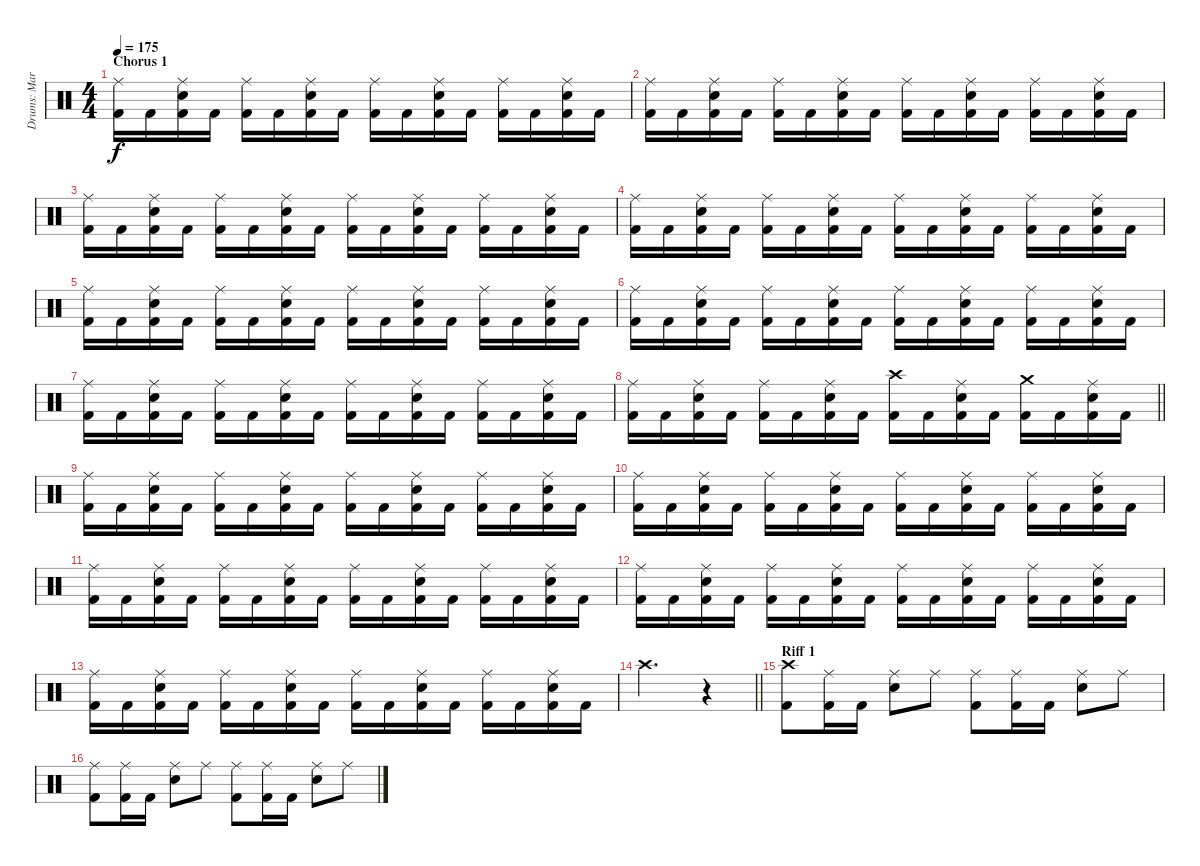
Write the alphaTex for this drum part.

\track ("Drums: Martin Herzinger" "Drums: Mar") {instrument percussion}
\staff {score}
\articulation defaults
\ts (4 4)
\section ("" "Chorus 1")
\tempo 175
\clef neutral
\ks aminor
("Ride (middle)" "Kick (hit) 2").16{dy f} "Kick (hit) 2".16 ("Ride (middle)" "Snare (hit) 2" "Kick (hit) 2").16 "Kick (hit) 2".16 ("Ride (middle)" "Kick (hit) 2").16 "Kick (hit) 2".16 ("Ride (middle)" "Snare (hit) 2" "Kick (hit) 2").16 "Kick (hit) 2".16 ("Ride (middle)" "Kick (hit) 2").16 "Kick (hit) 2".16 ("Ride (middle)" "Snare (hit) 2" "Kick (hit) 2").16 "Kick (hit) 2".16 ("Ride (middle)" "Kick (hit) 2").16 "Kick (hit) 2".16 ("Ride (middle)" "Snare (hit) 2" "Kick (hit) 2").16 "Kick (hit) 2".16 |
("Ride (middle)" "Kick (hit) 2").16 "Kick (hit) 2".16 ("Ride (middle)" "Snare (hit) 2" "Kick (hit) 2").16 "Kick (hit) 2".16 ("Ride (middle)" "Kick (hit) 2").16 "Kick (hit) 2".16 ("Ride (middle)" "Snare (hit) 2" "Kick (hit) 2").16 "Kick (hit) 2".16 ("Ride (middle)" "Kick (hit) 2").16 "Kick (hit) 2".16 ("Ride (middle)" "Snare (hit) 2" "Kick (hit) 2").16 "Kick (hit) 2".16 ("Ride (middle)" "Kick (hit) 2").16 "Kick (hit) 2".16 ("Ride (middle)" "Snare (hit) 2" "Kick (hit) 2").16 "Kick (hit) 2".16 |
("Ride (middle)" "Kick (hit) 2").16 "Kick (hit) 2".16 ("Ride (middle)" "Snare (hit) 2" "Kick (hit) 2").16 "Kick (hit) 2".16 ("Ride (middle)" "Kick (hit) 2").16 "Kick (hit) 2".16 ("Ride (middle)" "Snare (hit) 2" "Kick (hit) 2").16 "Kick (hit) 2".16 ("Ride (middle)" "Kick (hit) 2").16 "Kick (hit) 2".16 ("Ride (middle)" "Snare (hit) 2" "Kick (hit) 2").16 "Kick (hit) 2".16 ("Ride (middle)" "Kick (hit) 2").16 "Kick (hit) 2".16 ("Ride (middle)" "Snare (hit) 2" "Kick (hit) 2").16 "Kick (hit) 2".16 |
("Ride (middle)" "Kick (hit) 2").16 "Kick (hit) 2".16 ("Ride (middle)" "Snare (hit) 2" "Kick (hit) 2").16 "Kick (hit) 2".16 ("Ride (middle)" "Kick (hit) 2").16 "Kick (hit) 2".16 ("Ride (middle)" "Snare (hit) 2" "Kick (hit) 2").16 "Kick (hit) 2".16 ("Ride (middle)" "Kick (hit) 2").16 "Kick (hit) 2".16 ("Ride (middle)" "Snare (hit) 2" "Kick (hit) 2").16 "Kick (hit) 2".16 ("Ride (middle)" "Kick (hit) 2").16 "Kick (hit) 2".16 ("Ride (middle)" "Snare (hit) 2" "Kick (hit) 2").16 "Kick (hit) 2".16 |
("Ride (middle)" "Kick (hit) 2").16 "Kick (hit) 2".16 ("Ride (middle)" "Snare (hit) 2" "Kick (hit) 2").16 "Kick (hit) 2".16 ("Ride (middle)" "Kick (hit) 2").16 "Kick (hit) 2".16 ("Ride (middle)" "Snare (hit) 2" "Kick (hit) 2").16 "Kick (hit) 2".16 ("Ride (middle)" "Kick (hit) 2").16 "Kick (hit) 2".16 ("Ride (middle)" "Snare (hit) 2" "Kick (hit) 2").16 "Kick (hit) 2".16 ("Ride (middle)" "Kick (hit) 2").16 "Kick (hit) 2".16 ("Ride (middle)" "Snare (hit) 2" "Kick (hit) 2").16 "Kick (hit) 2".16 |
("Ride (middle)" "Kick (hit) 2").16 "Kick (hit) 2".16 ("Ride (middle)" "Snare (hit) 2" "Kick (hit) 2").16 "Kick (hit) 2".16 ("Ride (middle)" "Kick (hit) 2").16 "Kick (hit) 2".16 ("Ride (middle)" "Snare (hit) 2" "Kick (hit) 2").16 "Kick (hit) 2".16 ("Ride (middle)" "Kick (hit) 2").16 "Kick (hit) 2".16 ("Ride (middle)" "Snare (hit) 2" "Kick (hit) 2").16 "Kick (hit) 2".16 ("Ride (middle)" "Kick (hit) 2").16 "Kick (hit) 2".16 ("Ride (middle)" "Snare (hit) 2" "Kick (hit) 2").16 "Kick (hit) 2".16 |
("Ride (middle)" "Kick (hit) 2").16 "Kick (hit) 2".16 ("Ride (middle)" "Snare (hit) 2" "Kick (hit) 2").16 "Kick (hit) 2".16 ("Ride (middle)" "Kick (hit) 2").16 "Kick (hit) 2".16 ("Ride (middle)" "Snare (hit) 2" "Kick (hit) 2").16 "Kick (hit) 2".16 ("Ride (middle)" "Kick (hit) 2").16 "Kick (hit) 2".16 ("Ride (middle)" "Snare (hit) 2" "Kick (hit) 2").16 "Kick (hit) 2".16 ("Ride (middle)" "Kick (hit) 2").16 "Kick (hit) 2".16 ("Ride (middle)" "Snare (hit) 2" "Kick (hit) 2").16 "Kick (hit) 2".16 |
\barLineRight lightlight
("Ride (middle)" "Kick (hit) 2").16 "Kick (hit) 2".16 ("Ride (middle)" "Snare (hit) 2" "Kick (hit) 2").16 "Kick (hit) 2".16 ("Ride (middle)" "Kick (hit) 2").16 "Kick (hit) 2".16 ("Ride (middle)" "Snare (hit) 2" "Kick (hit) 2").16 "Kick (hit) 2".16 ("Crash high (hit)" "Kick (hit) 2").16 "Kick (hit) 2".16 ("Ride (middle)" "Snare (hit) 2" "Kick (hit) 2").16 "Kick (hit) 2".16 ("Crash medium (hit)" "Kick (hit) 2").16 "Kick (hit) 2".16 ("Ride (middle)" "Snare (hit) 2" "Kick (hit) 2").16 "Kick (hit) 2".16 |
("Ride (middle)" "Kick (hit) 2").16 "Kick (hit) 2".16 ("Ride (middle)" "Snare (hit) 2" "Kick (hit) 2").16 "Kick (hit) 2".16 ("Ride (middle)" "Kick (hit) 2").16 "Kick (hit) 2".16 ("Ride (middle)" "Snare (hit) 2" "Kick (hit) 2").16 "Kick (hit) 2".16 ("Ride (middle)" "Kick (hit) 2").16 "Kick (hit) 2".16 ("Ride (middle)" "Snare (hit) 2" "Kick (hit) 2").16 "Kick (hit) 2".16 ("Ride (middle)" "Kick (hit) 2").16 "Kick (hit) 2".16 ("Ride (middle)" "Snare (hit) 2" "Kick (hit) 2").16 "Kick (hit) 2".16 |
("Ride (middle)" "Kick (hit) 2").16 "Kick (hit) 2".16 ("Ride (middle)" "Snare (hit) 2" "Kick (hit) 2").16 "Kick (hit) 2".16 ("Ride (middle)" "Kick (hit) 2").16 "Kick (hit) 2".16 ("Ride (middle)" "Snare (hit) 2" "Kick (hit) 2").16 "Kick (hit) 2".16 ("Ride (middle)" "Kick (hit) 2").16 "Kick (hit) 2".16 ("Ride (middle)" "Snare (hit) 2" "Kick (hit) 2").16 "Kick (hit) 2".16 ("Ride (middle)" "Kick (hit) 2").16 "Kick (hit) 2".16 ("Ride (middle)" "Snare (hit) 2" "Kick (hit) 2").16 "Kick (hit) 2".16 |
("Ride (middle)" "Kick (hit) 2").16 "Kick (hit) 2".16 ("Ride (middle)" "Snare (hit) 2" "Kick (hit) 2").16 "Kick (hit) 2".16 ("Ride (middle)" "Kick (hit) 2").16 "Kick (hit) 2".16 ("Ride (middle)" "Snare (hit) 2" "Kick (hit) 2").16 "Kick (hit) 2".16 ("Ride (middle)" "Kick (hit) 2").16 "Kick (hit) 2".16 ("Ride (middle)" "Snare (hit) 2" "Kick (hit) 2").16 "Kick (hit) 2".16 ("Ride (middle)" "Kick (hit) 2").16 "Kick (hit) 2".16 ("Ride (middle)" "Snare (hit) 2" "Kick (hit) 2").16 "Kick (hit) 2".16 |
("Ride (middle)" "Kick (hit) 2").16 "Kick (hit) 2".16 ("Ride (middle)" "Snare (hit) 2" "Kick (hit) 2").16 "Kick (hit) 2".16 ("Ride (middle)" "Kick (hit) 2").16 "Kick (hit) 2".16 ("Ride (middle)" "Snare (hit) 2" "Kick (hit) 2").16 "Kick (hit) 2".16 ("Ride (middle)" "Kick (hit) 2").16 "Kick (hit) 2".16 ("Ride (middle)" "Snare (hit) 2" "Kick (hit) 2").16 "Kick (hit) 2".16 ("Ride (middle)" "Kick (hit) 2").16 "Kick (hit) 2".16 ("Ride (middle)" "Snare (hit) 2" "Kick (hit) 2").16 "Kick (hit) 2".16 |
("Ride (middle)" "Kick (hit) 2").16 "Kick (hit) 2".16 ("Ride (middle)" "Snare (hit) 2" "Kick (hit) 2").16 "Kick (hit) 2".16 ("Ride (middle)" "Kick (hit) 2").16 "Kick (hit) 2".16 ("Ride (middle)" "Snare (hit) 2" "Kick (hit) 2").16 "Kick (hit) 2".16 ("Ride (middle)" "Kick (hit) 2").16 "Kick (hit) 2".16 ("Ride (middle)" "Snare (hit) 2" "Kick (hit) 2").16 "Kick (hit) 2".16 ("Ride (middle)" "Kick (hit) 2").16 "Kick (hit) 2".16 ("Ride (middle)" "Snare (hit) 2" "Kick (hit) 2").16 "Kick (hit) 2".16 |
\barLineRight lightlight "Crash high (hit)".2{d}
r.4 |
\section ("" "Riff 1")
("Crash high (hit)" "Kick (hit) 2").8 ("Ride (middle)" "Kick (hit) 2").16 "Kick (hit) 2".16 ("Ride (middle)" "Snare (hit) 2").8 "Ride (middle)".8 ("Ride (middle)" "Kick (hit) 2").8 ("Ride (middle)" "Kick (hit) 2").16 "Kick (hit) 2".16 ("Ride (middle)" "Snare (hit) 2").8 "Ride (middle)".8 |
("Ride (middle)" "Kick (hit) 2").8 ("Ride (middle)" "Kick (hit) 2").16 "Kick (hit) 2".16 ("Ride (middle)" "Snare (hit) 2").8 "Ride (middle)".8 ("Ride (middle)" "Kick (hit) 2").8 ("Ride (middle)" "Kick (hit) 2").16 "Kick (hit) 2".16 ("Ride (middle)" "Snare (hit) 2").8 "Ride (middle)".8
